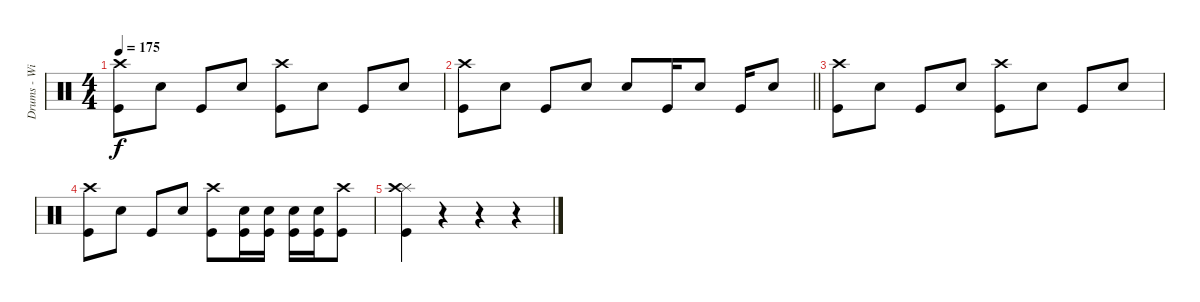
\track ("Drums - Willie Buchan" "Drums - Wi") {instrument percussion}
\staff {score}
\articulation defaults
\ts (4 4)
\tempo 175
\clef neutral
\ks c
("Crash high (hit)" "Kick (hit)").8{dy f} "Snare (hit) 2".8 "Kick (hit)".8 "Snare (hit) 2".8 ("Crash high (hit)" "Kick (hit)").8 "Snare (hit) 2".8 "Kick (hit)".8 "Snare (hit) 2".8 |
\barLineRight lightlight
("Crash high (hit)" "Kick (hit)").8 "Snare (hit) 2".8 "Kick (hit)".8 "Snare (hit) 2".8 "Snare (hit) 2".8 "Kick (hit)".16 "Snare (hit) 2".8 "Kick (hit)".16 "Snare (hit) 2".8 |
("Crash high (hit)" "Kick (hit)").8 "Snare (hit) 2".8 "Kick (hit)".8 "Snare (hit) 2".8 ("Crash high (hit)" "Kick (hit)").8 "Snare (hit) 2".8 "Kick (hit)".8 "Snare (hit) 2".8 |
("Crash high (hit)" "Kick (hit)").8 "Snare (hit) 2".8 "Kick (hit)".8 "Snare (hit) 2".8 ("Crash high (hit)" "Kick (hit)").8 ("Snare (hit) 2" "Kick (hit)").16 ("Snare (hit) 2" "Kick (hit)").16 ("Snare (hit) 2" "Kick (hit)").16 ("Snare (hit) 2" "Kick (hit)").16 ("Crash high (hit)" "Kick (hit)").8 |
("Splash (hit)" "Crash high (hit)" "Kick (hit)").4 r.4 r.4 r.4
